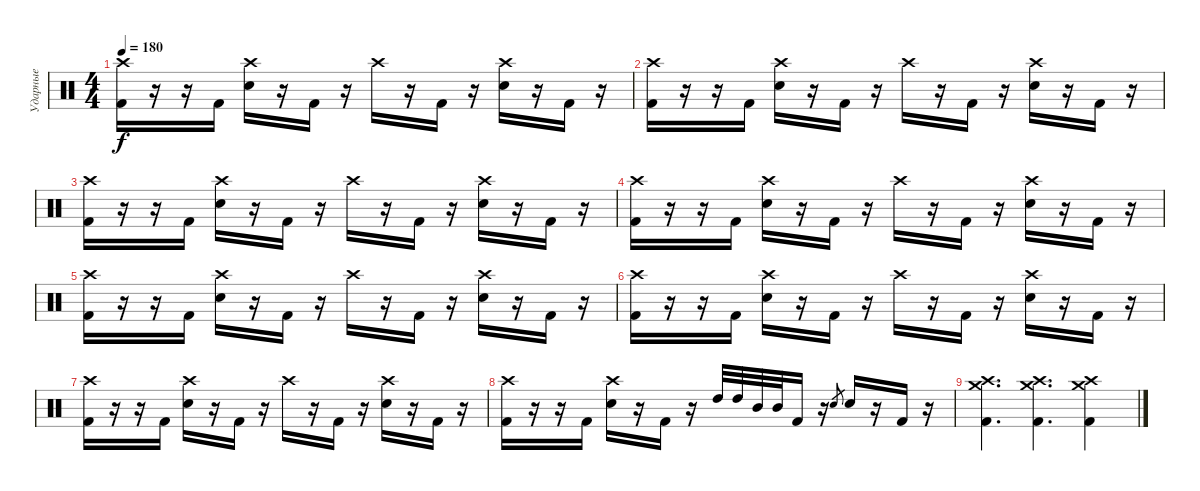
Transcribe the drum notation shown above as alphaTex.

\track ("Ударные" "Ударные") {instrument percussion}
\staff {score}
\articulation defaults
\ts (4 4)
\tempo 180
\clef neutral
\ks c
("Crash high (hit)" "Kick (hit) 2").16{dy f} r.16 r.16 "Kick (hit) 2".16 ("Crash high (hit)" "Electric Snare (hit)").16 r.16 "Kick (hit) 2".16 r.16 "Crash high (hit)".16 r.16 "Kick (hit) 2".16 r.16 ("Crash high (hit)" "Electric Snare (hit)").16 r.16 "Kick (hit) 2".16 r.16 |
("Crash high (hit)" "Kick (hit) 2").16 r.16 r.16 "Kick (hit) 2".16 ("Crash high (hit)" "Electric Snare (hit)").16 r.16 "Kick (hit) 2".16 r.16 "Crash high (hit)".16 r.16 "Kick (hit) 2".16 r.16 ("Crash high (hit)" "Electric Snare (hit)").16 r.16 "Kick (hit) 2".16 r.16 |
("Crash high (hit)" "Kick (hit) 2").16 r.16 r.16 "Kick (hit) 2".16 ("Crash high (hit)" "Electric Snare (hit)").16 r.16 "Kick (hit) 2".16 r.16 "Crash high (hit)".16 r.16 "Kick (hit) 2".16 r.16 ("Crash high (hit)" "Electric Snare (hit)").16 r.16 "Kick (hit) 2".16 r.16 |
("Crash high (hit)" "Kick (hit) 2").16 r.16 r.16 "Kick (hit) 2".16 ("Crash high (hit)" "Electric Snare (hit)").16 r.16 "Kick (hit) 2".16 r.16 "Crash high (hit)".16 r.16 "Kick (hit) 2".16 r.16 ("Crash high (hit)" "Electric Snare (hit)").16 r.16 "Kick (hit) 2".16 r.16 |
("Crash high (hit)" "Kick (hit) 2").16 r.16 r.16 "Kick (hit) 2".16 ("Crash high (hit)" "Electric Snare (hit)").16 r.16 "Kick (hit) 2".16 r.16 "Crash high (hit)".16 r.16 "Kick (hit) 2".16 r.16 ("Crash high (hit)" "Electric Snare (hit)").16 r.16 "Kick (hit) 2".16 r.16 |
("Crash high (hit)" "Kick (hit) 2").16 r.16 r.16 "Kick (hit) 2".16 ("Crash high (hit)" "Electric Snare (hit)").16 r.16 "Kick (hit) 2".16 r.16 "Crash high (hit)".16 r.16 "Kick (hit) 2".16 r.16 ("Crash high (hit)" "Electric Snare (hit)").16 r.16 "Kick (hit) 2".16 r.16 |
("Crash high (hit)" "Kick (hit) 2").16 r.16 r.16 "Kick (hit) 2".16 ("Crash high (hit)" "Electric Snare (hit)").16 r.16 "Kick (hit) 2".16 r.16 "Crash high (hit)".16 r.16 "Kick (hit) 2".16 r.16 ("Crash high (hit)" "Electric Snare (hit)").16 r.16 "Kick (hit) 2".16 r.16 |
("Crash high (hit)" "Kick (hit) 2").16 r.16 r.16 "Kick (hit) 2".16 ("Crash high (hit)" "Electric Snare (hit)").16 r.16 "Kick (hit) 2".16 r.16 "High Tom (hit)".32 "High Tom (hit)".32 "Mid Tom (hit)".32 "Mid Tom (hit)".32 "Kick (hit) 2".16 r.16 "Electric Snare (hit)".8{gr} "Electric Snare (hit)".16 r.16 "Kick (hit) 2".16 r.16 |
("Crash medium (hit)" "Crash high (hit)" "Kick (hit) 2").4{d} ("Crash medium (hit)" "Crash high (hit)" "Kick (hit) 2").4{d} ("Crash medium (hit)" "Crash high (hit)" "Kick (hit) 2").4
